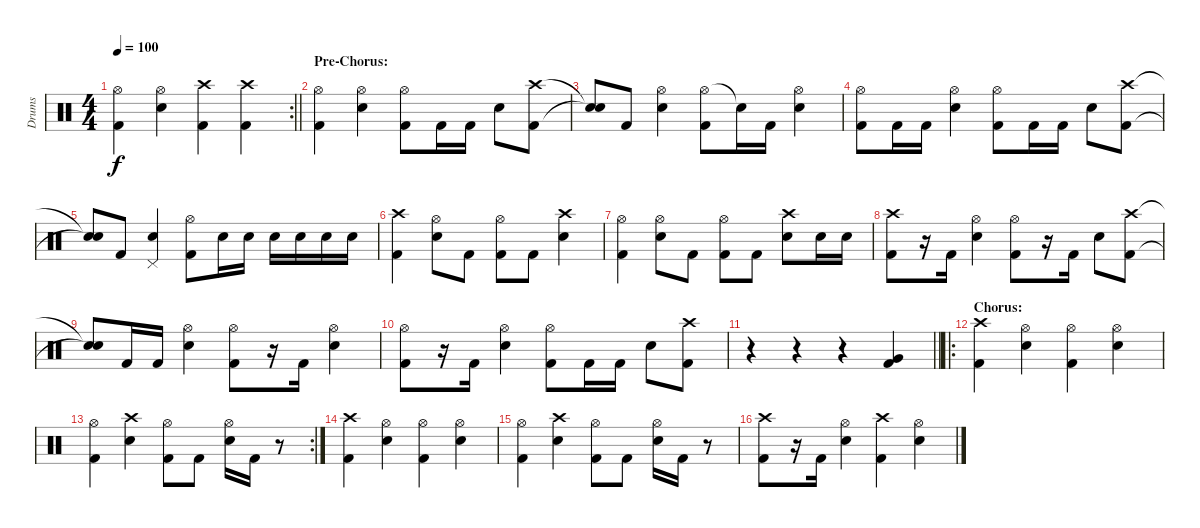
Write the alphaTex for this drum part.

\track ("Drums" "Drums") {instrument percussion}
\staff {score}
\articulation defaults
\rc 2
\ts (4 4)
\tempo 100
\clef neutral
\barLineRight lightlight
\ks c
("Hi-Hat (open)" "Kick (hit) 2").4{dy f} ("Hi-Hat (open)" "Electric Snare (hit)").4 ("Crash high (hit)" "Kick (hit) 2").4 ("Crash high (hit)" "Kick (hit) 2").4 |
\section ("" "Pre-Chorus:")
("Hi-Hat (open)" "Kick (hit) 2").4 ("Hi-Hat (open)" "Electric Snare (hit)").4 ("Hi-Hat (open)" "Kick (hit) 2").8 "Kick (hit) 2".16 "Kick (hit) 2".16 "Electric Snare (hit)".8 ("Crash high (hit)" "Kick (hit) 2").8 |
("Snare (hit)"{t} "Snare (hit)"{t}).8 "Kick (hit) 2".8 ("Hi-Hat (open)" "Electric Snare (hit)").4 ("Hi-Hat (open)" "Kick (hit) 2").8 "Snare (hit)"{t}.16 "Kick (hit) 2".16 ("Hi-Hat (open)" "Electric Snare (hit)").4 |
("Hi-Hat (open)" "Kick (hit) 2").8 "Kick (hit) 2".16 "Kick (hit) 2".16 ("Hi-Hat (open)" "Electric Snare (hit)").4 ("Hi-Hat (open)" "Kick (hit) 2").8 "Kick (hit) 2".16 "Kick (hit) 2".16 "Electric Snare (hit)".8 ("Crash high (hit)" "Kick (hit) 2").8 |
("Snare (hit)"{t} "Snare (hit)"{t}).8 "Kick (hit) 2".8 ("Pedal Hi-Hat (hit)" "Electric Snare (hit)").4 ("Hi-Hat (open)" "Kick (hit) 2").8 "Electric Snare (hit)".16 "Electric Snare (hit)".16 "Electric Snare (hit)".16 "Electric Snare (hit)".16 "Electric Snare (hit)".16 "Electric Snare (hit)".16 |
("Crash high (hit)" "Kick (hit) 2").4 ("Hi-Hat (open)" "Electric Snare (hit)").8 "Kick (hit) 2".8 ("Hi-Hat (open)" "Kick (hit) 2").8 "Kick (hit) 2".8 ("Crash high (hit)" "Electric Snare (hit)").4 |
("Hi-Hat (open)" "Kick (hit) 2").4 ("Hi-Hat (open)" "Electric Snare (hit)").8 "Kick (hit) 2".8 ("Hi-Hat (open)" "Kick (hit) 2").8 "Kick (hit) 2".8 ("Crash high (hit)" "Electric Snare (hit)").8 "Electric Snare (hit)".16 "Electric Snare (hit)".16 |
("Crash high (hit)" "Kick (hit) 2").8 r.16 "Kick (hit) 2".16 ("Hi-Hat (open)" "Electric Snare (hit)").4 ("Hi-Hat (open)" "Kick (hit) 2").8 r.16 "Kick (hit) 2".16 "Electric Snare (hit)".8 ("Crash high (hit)" "Kick (hit) 2").8 |
("Snare (hit)"{t} "Snare (hit)"{t}).8 "Kick (hit) 2".16 "Kick (hit) 2".16 ("Hi-Hat (open)" "Electric Snare (hit)").4 ("Hi-Hat (open)" "Kick (hit) 2").8 r.16 "Kick (hit) 2".16 ("Hi-Hat (open)" "Electric Snare (hit)").4 |
("Hi-Hat (open)" "Kick (hit) 2").8 r.16 "Kick (hit) 2".16 ("Hi-Hat (open)" "Electric Snare (hit)").4 ("Hi-Hat (open)" "Kick (hit) 2").8 "Kick (hit) 2".16 "Kick (hit) 2".16 "Electric Snare (hit)".8 ("Crash high (hit)" "Kick (hit) 2").8 |
\barLineRight lightlight
r.4 r.4 r.4 ("Very Low Tom (hit)" "Kick (hit) 2").4 |
\ro
\section ("" "Chorus:")
("Crash high (hit)" "Kick (hit) 2").4 ("Hi-Hat (open)" "Electric Snare (hit)").4 ("Hi-Hat (open)" "Kick (hit) 2").4 ("Hi-Hat (open)" "Electric Snare (hit)").4 |
\rc 2
("Hi-Hat (open)" "Kick (hit) 2").4 ("Crash high (hit)" "Electric Snare (hit)").4 ("Hi-Hat (open)" "Kick (hit) 2").8 "Kick (hit) 2".8 ("Hi-Hat (open)" "Electric Snare (hit)").16 "Kick (hit) 2".16 r.8 |
("Crash high (hit)" "Kick (hit) 2").4 ("Hi-Hat (open)" "Electric Snare (hit)").4 ("Hi-Hat (open)" "Kick (hit) 2").4 ("Hi-Hat (open)" "Electric Snare (hit)").4 |
("Hi-Hat (open)" "Kick (hit) 2").4 ("Crash high (hit)" "Electric Snare (hit)").4 ("Hi-Hat (open)" "Kick (hit) 2").8 "Kick (hit) 2".8 ("Hi-Hat (open)" "Electric Snare (hit)").16 "Kick (hit) 2".16 r.8 |
("Crash high (hit)" "Kick (hit) 2").8 r.16 "Kick (hit) 2".16 ("Hi-Hat (open)" "Electric Snare (hit)").4 ("Crash high (hit)" "Kick (hit) 2").4 ("Hi-Hat (open)" "Electric Snare (hit)").4
